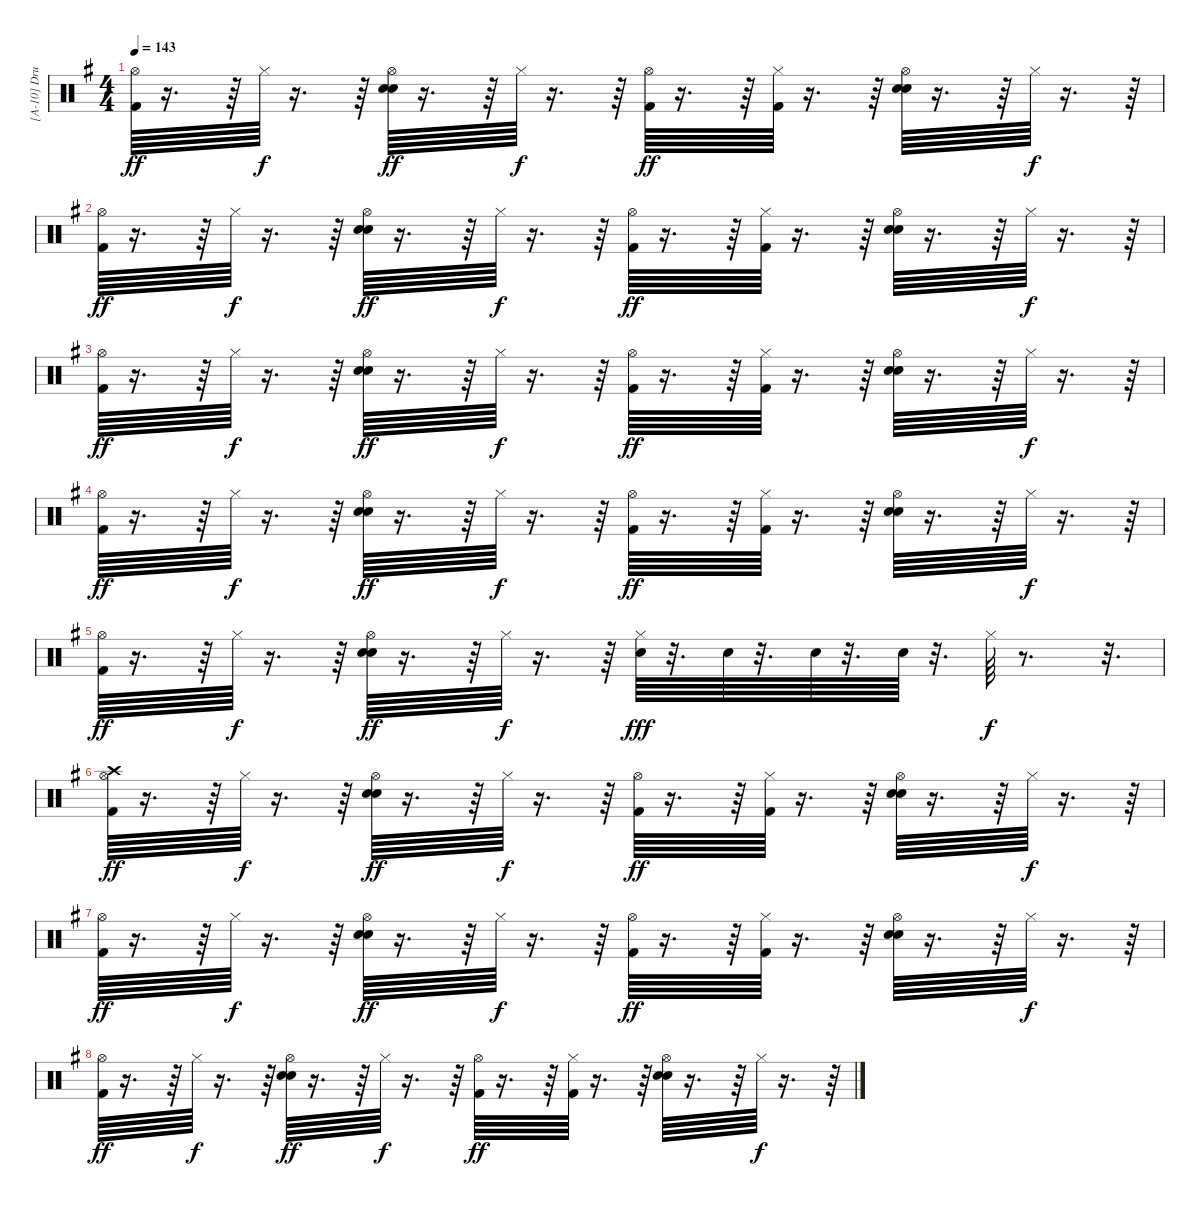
\track ("[A-10] Drums" "[A-10] Dru") {instrument percussion}
\staff {score}
\articulation defaults
\ts (4 4)
\tempo 143
\clef neutral
\ks g
("Hi-Hat (open)" "Kick (hit) 2").64{dy ff} r.16{d} r.64 "Hi-Hat (closed)".64{dy f} r.16{d} r.64 ("Hi-Hat (open)" "Electric Snare (hit)" "Snare (hit) 2").64{dy ff} r.16{d} r.64 "Hi-Hat (closed)".64{dy f} r.16{d} r.64 ("Hi-Hat (open)" "Kick (hit) 2").64{dy ff} r.16{d} r.64 ("Hi-Hat (closed)" "Kick (hit) 2").64 r.16{d} r.64 ("Hi-Hat (open)" "Electric Snare (hit)" "Snare (hit) 2").64 r.16{d} r.64 "Hi-Hat (closed)".64{dy f} r.16{d} r.64 |
("Hi-Hat (open)" "Kick (hit) 2").64{dy ff} r.16{d} r.64 "Hi-Hat (closed)".64{dy f} r.16{d} r.64 ("Hi-Hat (open)" "Electric Snare (hit)" "Snare (hit) 2").64{dy ff} r.16{d} r.64 "Hi-Hat (closed)".64{dy f} r.16{d} r.64 ("Hi-Hat (open)" "Kick (hit) 2").64{dy ff} r.16{d} r.64 ("Hi-Hat (closed)" "Kick (hit) 2").64 r.16{d} r.64 ("Hi-Hat (open)" "Electric Snare (hit)" "Snare (hit) 2").64 r.16{d} r.64 "Hi-Hat (closed)".64{dy f} r.16{d} r.64 |
("Hi-Hat (open)" "Kick (hit) 2").64{dy ff} r.16{d} r.64 "Hi-Hat (closed)".64{dy f} r.16{d} r.64 ("Hi-Hat (open)" "Electric Snare (hit)" "Snare (hit) 2").64{dy ff} r.16{d} r.64 "Hi-Hat (closed)".64{dy f} r.16{d} r.64 ("Hi-Hat (open)" "Kick (hit) 2").64{dy ff} r.16{d} r.64 ("Hi-Hat (closed)" "Kick (hit) 2").64 r.16{d} r.64 ("Hi-Hat (open)" "Electric Snare (hit)" "Snare (hit) 2").64 r.16{d} r.64 "Hi-Hat (closed)".64{dy f} r.16{d} r.64 |
("Hi-Hat (open)" "Kick (hit) 2").64{dy ff} r.16{d} r.64 "Hi-Hat (closed)".64{dy f} r.16{d} r.64 ("Hi-Hat (open)" "Electric Snare (hit)" "Snare (hit) 2").64{dy ff} r.16{d} r.64 "Hi-Hat (closed)".64{dy f} r.16{d} r.64 ("Hi-Hat (open)" "Kick (hit) 2").64{dy ff} r.16{d} r.64 ("Hi-Hat (closed)" "Kick (hit) 2").64 r.16{d} r.64 ("Hi-Hat (open)" "Electric Snare (hit)" "Snare (hit) 2").64 r.16{d} r.64 "Hi-Hat (closed)".64{dy f} r.16{d} r.64 |
("Hi-Hat (open)" "Kick (hit) 2").64{dy ff} r.16{d} r.64 "Hi-Hat (closed)".64{dy f} r.16{d} r.64 ("Hi-Hat (open)" "Electric Snare (hit)" "Snare (hit) 2").64{dy ff} r.16{d} r.64 "Hi-Hat (closed)".64{dy f} r.16{d} r.64 ("Hi-Hat (closed)" "Snare (hit) 2").64{dy fff} r.32{d} "Snare (hit) 2".64 r.32{d} "Snare (hit) 2".64 r.32{d} "Snare (hit) 2".64 r.32{d} "Hi-Hat (closed)".64{dy f} r.8{d} r.32{d} |
("Crash high (hit)" "Hi-Hat (open)" "Kick (hit) 2").64{dy ff} r.16{d} r.64 "Hi-Hat (closed)".64{dy f} r.16{d} r.64 ("Hi-Hat (open)" "Electric Snare (hit)" "Snare (hit) 2").64{dy ff} r.16{d} r.64 "Hi-Hat (closed)".64{dy f} r.16{d} r.64 ("Hi-Hat (open)" "Kick (hit) 2").64{dy ff} r.16{d} r.64 ("Hi-Hat (closed)" "Kick (hit) 2").64 r.16{d} r.64 ("Hi-Hat (open)" "Electric Snare (hit)" "Snare (hit) 2").64 r.16{d} r.64 "Hi-Hat (closed)".64{dy f} r.16{d} r.64 |
("Hi-Hat (open)" "Kick (hit) 2").64{dy ff} r.16{d} r.64 "Hi-Hat (closed)".64{dy f} r.16{d} r.64 ("Hi-Hat (open)" "Electric Snare (hit)" "Snare (hit) 2").64{dy ff} r.16{d} r.64 "Hi-Hat (closed)".64{dy f} r.16{d} r.64 ("Hi-Hat (open)" "Kick (hit) 2").64{dy ff} r.16{d} r.64 ("Hi-Hat (closed)" "Kick (hit) 2").64 r.16{d} r.64 ("Hi-Hat (open)" "Electric Snare (hit)" "Snare (hit) 2").64 r.16{d} r.64 "Hi-Hat (closed)".64{dy f} r.16{d} r.64 |
("Hi-Hat (open)" "Kick (hit) 2").64{dy ff} r.16{d} r.64 "Hi-Hat (closed)".64{dy f} r.16{d} r.64 ("Hi-Hat (open)" "Electric Snare (hit)" "Snare (hit) 2").64{dy ff} r.16{d} r.64 "Hi-Hat (closed)".64{dy f} r.16{d} r.64 ("Hi-Hat (open)" "Kick (hit) 2").64{dy ff} r.16{d} r.64 ("Hi-Hat (closed)" "Kick (hit) 2").64 r.16{d} r.64 ("Hi-Hat (open)" "Electric Snare (hit)" "Snare (hit) 2").64 r.16{d} r.64 "Hi-Hat (closed)".64{dy f} r.16{d} r.64
